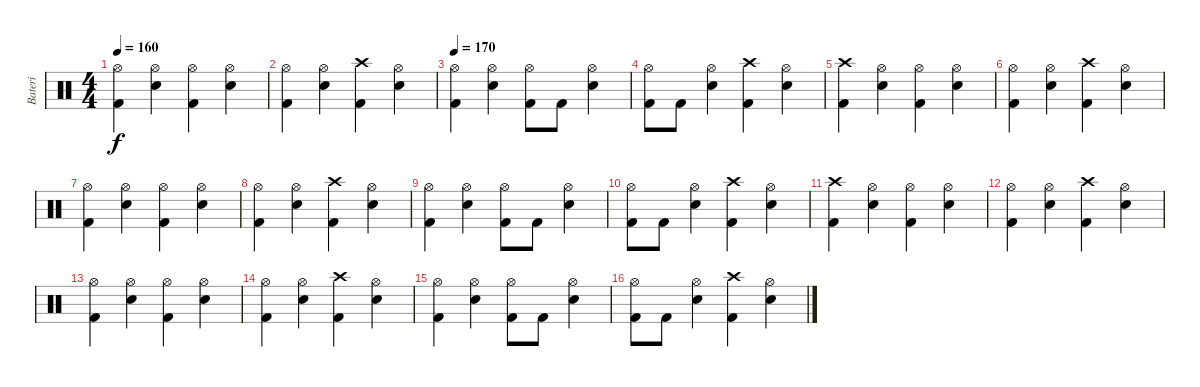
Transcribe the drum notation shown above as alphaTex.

\track ("Bateri" "Bateri") {instrument percussion}
\staff {score}
\articulation defaults
\ts (4 4)
\tempo 160
\clef neutral
\ks c
("Hi-Hat (open)" "Kick (hit) 2").4{dy f} ("Hi-Hat (open)" "Snare (hit) 2").4 ("Hi-Hat (open)" "Kick (hit) 2").4 ("Hi-Hat (open)" "Snare (hit) 2").4 |
("Hi-Hat (open)" "Kick (hit) 2").4 ("Hi-Hat (open)" "Snare (hit) 2").4 ("Crash high (hit)" "Kick (hit) 2").4 ("Hi-Hat (open)" "Snare (hit) 2").4 |
\tempo 170
("Hi-Hat (open)" "Kick (hit) 2").4 ("Hi-Hat (open)" "Snare (hit) 2").4 ("Hi-Hat (open)" "Kick (hit) 2").8 "Kick (hit) 2".8 ("Hi-Hat (open)" "Snare (hit) 2").4 |
("Hi-Hat (open)" "Kick (hit) 2").8 "Kick (hit) 2".8 ("Hi-Hat (open)" "Snare (hit) 2").4 ("Crash high (hit)" "Kick (hit) 2").4 ("Hi-Hat (open)" "Snare (hit) 2").4 |
("Crash high (hit)" "Kick (hit) 2").4 ("Hi-Hat (open)" "Snare (hit) 2").4 ("Hi-Hat (open)" "Kick (hit) 2").4 ("Hi-Hat (open)" "Snare (hit) 2").4 |
("Hi-Hat (open)" "Kick (hit) 2").4 ("Hi-Hat (open)" "Snare (hit) 2").4 ("Crash high (hit)" "Kick (hit) 2").4 ("Hi-Hat (open)" "Snare (hit) 2").4 |
("Hi-Hat (open)" "Kick (hit) 2").4 ("Hi-Hat (open)" "Snare (hit) 2").4 ("Hi-Hat (open)" "Kick (hit) 2").4 ("Hi-Hat (open)" "Snare (hit) 2").4 |
("Hi-Hat (open)" "Kick (hit) 2").4 ("Hi-Hat (open)" "Snare (hit) 2").4 ("Crash high (hit)" "Kick (hit) 2").4 ("Hi-Hat (open)" "Snare (hit) 2").4 |
("Hi-Hat (open)" "Kick (hit) 2").4 ("Hi-Hat (open)" "Snare (hit) 2").4 ("Hi-Hat (open)" "Kick (hit) 2").8 "Kick (hit) 2".8 ("Hi-Hat (open)" "Snare (hit) 2").4 |
("Hi-Hat (open)" "Kick (hit) 2").8 "Kick (hit) 2".8 ("Hi-Hat (open)" "Snare (hit) 2").4 ("Crash high (hit)" "Kick (hit) 2").4 ("Hi-Hat (open)" "Snare (hit) 2").4 |
("Crash high (hit)" "Kick (hit) 2").4 ("Hi-Hat (open)" "Snare (hit) 2").4 ("Hi-Hat (open)" "Kick (hit) 2").4 ("Hi-Hat (open)" "Snare (hit) 2").4 |
("Hi-Hat (open)" "Kick (hit) 2").4 ("Hi-Hat (open)" "Snare (hit) 2").4 ("Crash high (hit)" "Kick (hit) 2").4 ("Hi-Hat (open)" "Snare (hit) 2").4 |
("Hi-Hat (open)" "Kick (hit) 2").4 ("Hi-Hat (open)" "Snare (hit) 2").4 ("Hi-Hat (open)" "Kick (hit) 2").4 ("Hi-Hat (open)" "Snare (hit) 2").4 |
("Hi-Hat (open)" "Kick (hit) 2").4 ("Hi-Hat (open)" "Snare (hit) 2").4 ("Crash high (hit)" "Kick (hit) 2").4 ("Hi-Hat (open)" "Snare (hit) 2").4 |
("Hi-Hat (open)" "Kick (hit) 2").4 ("Hi-Hat (open)" "Snare (hit) 2").4 ("Hi-Hat (open)" "Kick (hit) 2").8 "Kick (hit) 2".8 ("Hi-Hat (open)" "Snare (hit) 2").4 |
("Hi-Hat (open)" "Kick (hit) 2").8 "Kick (hit) 2".8 ("Hi-Hat (open)" "Snare (hit) 2").4 ("Crash high (hit)" "Kick (hit) 2").4 ("Hi-Hat (open)" "Snare (hit) 2").4
